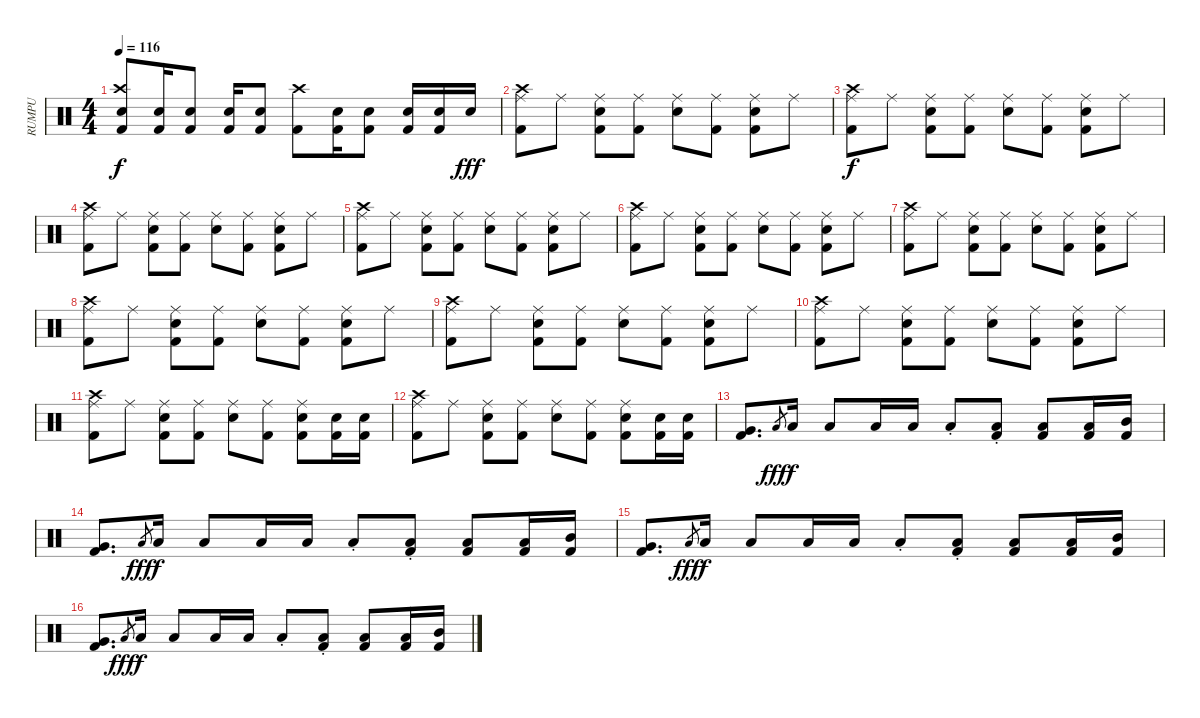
\track ("RUMPU" "RUMPU") {instrument percussion}
\staff {score}
\articulation defaults
\ts (4 4)
\tempo 116
\clef neutral
\ks c
("Electric Snare (hit)" "Crash high (hit)" "Kick (hit) 2").8{dy f} ("Electric Snare (hit)" "Kick (hit) 2").16 ("Electric Snare (hit)" "Kick (hit) 2").8 ("Electric Snare (hit)" "Kick (hit) 2").16 ("Electric Snare (hit)" "Kick (hit) 2").8 ("Crash high (hit)" "Kick (hit) 2").8 ("Electric Snare (hit)" "Kick (hit) 2").16 ("Electric Snare (hit)" "Kick (hit) 2").8 ("Electric Snare (hit)" "Kick (hit) 2").16 ("Electric Snare (hit)" "Kick (hit) 2").16 "Electric Snare (hit)".16{dy fff} |
("Crash high (hit)" "Ride (middle)" "Kick (hit) 2").8 "Ride (middle)".8 ("Electric Snare (hit)" "Ride (middle)" "Kick (hit) 2").8 ("Ride (middle)" "Kick (hit) 2").8 ("Electric Snare (hit)" "Ride (middle)").8 ("Ride (middle)" "Kick (hit) 2").8 ("Electric Snare (hit)" "Ride (middle)" "Kick (hit) 2").8 "Ride (middle)".8 |
("Crash high (hit)" "Ride (middle)" "Kick (hit) 2").8{dy f} "Ride (middle)".8 ("Electric Snare (hit)" "Ride (middle)" "Kick (hit) 2").8 ("Ride (middle)" "Kick (hit) 2").8 ("Electric Snare (hit)" "Ride (middle)").8 ("Ride (middle)" "Kick (hit) 2").8 ("Electric Snare (hit)" "Ride (middle)" "Kick (hit) 2").8 "Ride (middle)".8 |
("Crash high (hit)" "Ride (middle)" "Kick (hit) 2").8 "Ride (middle)".8 ("Electric Snare (hit)" "Ride (middle)" "Kick (hit) 2").8 ("Ride (middle)" "Kick (hit) 2").8 ("Electric Snare (hit)" "Ride (middle)").8 ("Ride (middle)" "Kick (hit) 2").8 ("Electric Snare (hit)" "Ride (middle)" "Kick (hit) 2").8 "Ride (middle)".8 |
("Crash high (hit)" "Ride (middle)" "Kick (hit) 2").8 "Ride (middle)".8 ("Electric Snare (hit)" "Ride (middle)" "Kick (hit) 2").8 ("Ride (middle)" "Kick (hit) 2").8 ("Electric Snare (hit)" "Ride (middle)").8 ("Ride (middle)" "Kick (hit) 2").8 ("Electric Snare (hit)" "Ride (middle)" "Kick (hit) 2").8 "Ride (middle)".8 |
("Crash high (hit)" "Ride (middle)" "Kick (hit) 2").8 "Ride (middle)".8 ("Electric Snare (hit)" "Ride (middle)" "Kick (hit) 2").8 ("Ride (middle)" "Kick (hit) 2").8 ("Electric Snare (hit)" "Ride (middle)").8 ("Ride (middle)" "Kick (hit) 2").8 ("Electric Snare (hit)" "Ride (middle)" "Kick (hit) 2").8 "Ride (middle)".8 |
("Crash high (hit)" "Ride (middle)" "Kick (hit) 2").8 "Ride (middle)".8 ("Electric Snare (hit)" "Ride (middle)" "Kick (hit) 2").8 ("Ride (middle)" "Kick (hit) 2").8 ("Electric Snare (hit)" "Ride (middle)").8 ("Ride (middle)" "Kick (hit) 2").8 ("Electric Snare (hit)" "Ride (middle)" "Kick (hit) 2").8 "Ride (middle)".8 |
("Crash high (hit)" "Ride (middle)" "Kick (hit) 2").8 "Ride (middle)".8 ("Electric Snare (hit)" "Ride (middle)" "Kick (hit) 2").8 ("Ride (middle)" "Kick (hit) 2").8 ("Electric Snare (hit)" "Ride (middle)").8 ("Ride (middle)" "Kick (hit) 2").8 ("Electric Snare (hit)" "Ride (middle)" "Kick (hit) 2").8 "Ride (middle)".8 |
("Crash high (hit)" "Ride (middle)" "Kick (hit) 2").8 "Ride (middle)".8 ("Electric Snare (hit)" "Ride (middle)" "Kick (hit) 2").8 ("Ride (middle)" "Kick (hit) 2").8 ("Electric Snare (hit)" "Ride (middle)").8 ("Ride (middle)" "Kick (hit) 2").8 ("Electric Snare (hit)" "Ride (middle)" "Kick (hit) 2").8 "Ride (middle)".8 |
("Crash high (hit)" "Ride (middle)" "Kick (hit) 2").8 "Ride (middle)".8 ("Electric Snare (hit)" "Ride (middle)" "Kick (hit) 2").8 ("Ride (middle)" "Kick (hit) 2").8 ("Electric Snare (hit)" "Ride (middle)").8 ("Ride (middle)" "Kick (hit) 2").8 ("Electric Snare (hit)" "Ride (middle)" "Kick (hit) 2").8 "Ride (middle)".8 |
("Crash high (hit)" "Ride (middle)" "Kick (hit) 2").8 "Ride (middle)".8 ("Electric Snare (hit)" "Ride (middle)" "Kick (hit) 2").8 ("Ride (middle)" "Kick (hit) 2").8 ("Electric Snare (hit)" "Ride (middle)").8 ("Ride (middle)" "Kick (hit) 2").8 ("Electric Snare (hit)" "Ride (middle)" "Kick (hit) 2").8 ("Electric Snare (hit)" "Kick (hit) 2").16 ("Electric Snare (hit)" "Kick (hit) 2").16 |
("Crash high (hit)" "Ride (middle)" "Kick (hit) 2").8 "Ride (middle)".8 ("Electric Snare (hit)" "Ride (middle)" "Kick (hit) 2").8 ("Ride (middle)" "Kick (hit) 2").8 ("Electric Snare (hit)" "Ride (middle)").8 ("Ride (middle)" "Kick (hit) 2").8 ("Electric Snare (hit)" "Ride (middle)" "Kick (hit) 2").8 ("Electric Snare (hit)" "Kick (hit) 2").16 ("Electric Snare (hit)" "Kick (hit) 2").16 |
("Very Low Tom (hit)" "Kick (hit) 2").8{d} "Low Floor Tom (hit)".8{gr dy fff} "Low Floor Tom (hit)".16{dy f} "Low Floor Tom (hit)".8 "Low Floor Tom (hit)".16 "Low Floor Tom (hit)".16 "Low Floor Tom (hit)"{st}.8 ("Low Floor Tom (hit)"{st} "Kick (hit) 2").8 ("Low Floor Tom (hit)" "Kick (hit) 2").8 ("Low Tom (hit)" "Kick (hit) 2").16 ("Mid Tom (hit)" "Kick (hit) 2").16 |
("Very Low Tom (hit)" "Kick (hit) 2").8{d} "Low Floor Tom (hit)".8{gr dy fff} "Low Floor Tom (hit)".16{dy f} "Low Floor Tom (hit)".8 "Low Floor Tom (hit)".16 "Low Floor Tom (hit)".16 "Low Floor Tom (hit)"{st}.8 ("Low Floor Tom (hit)"{st} "Kick (hit) 2").8 ("Low Floor Tom (hit)" "Kick (hit) 2").8 ("Low Tom (hit)" "Kick (hit) 2").16 ("Mid Tom (hit)" "Kick (hit) 2").16 |
("Very Low Tom (hit)" "Kick (hit) 2").8{d} "Low Floor Tom (hit)".8{gr dy fff} "Low Floor Tom (hit)".16{dy f} "Low Floor Tom (hit)".8 "Low Floor Tom (hit)".16 "Low Floor Tom (hit)".16 "Low Floor Tom (hit)"{st}.8 ("Low Floor Tom (hit)"{st} "Kick (hit) 2").8 ("Low Floor Tom (hit)" "Kick (hit) 2").8 ("Low Tom (hit)" "Kick (hit) 2").16 ("Mid Tom (hit)" "Kick (hit) 2").16 |
("Very Low Tom (hit)" "Kick (hit) 2").8{d} "Low Floor Tom (hit)".8{gr dy fff} "Low Floor Tom (hit)".16{dy f} "Low Floor Tom (hit)".8 "Low Floor Tom (hit)".16 "Low Floor Tom (hit)".16 "Low Floor Tom (hit)"{st}.8 ("Low Floor Tom (hit)"{st} "Kick (hit) 2").8 ("Low Floor Tom (hit)" "Kick (hit) 2").8 ("Low Tom (hit)" "Kick (hit) 2").16 ("Mid Tom (hit)" "Kick (hit) 2").16
